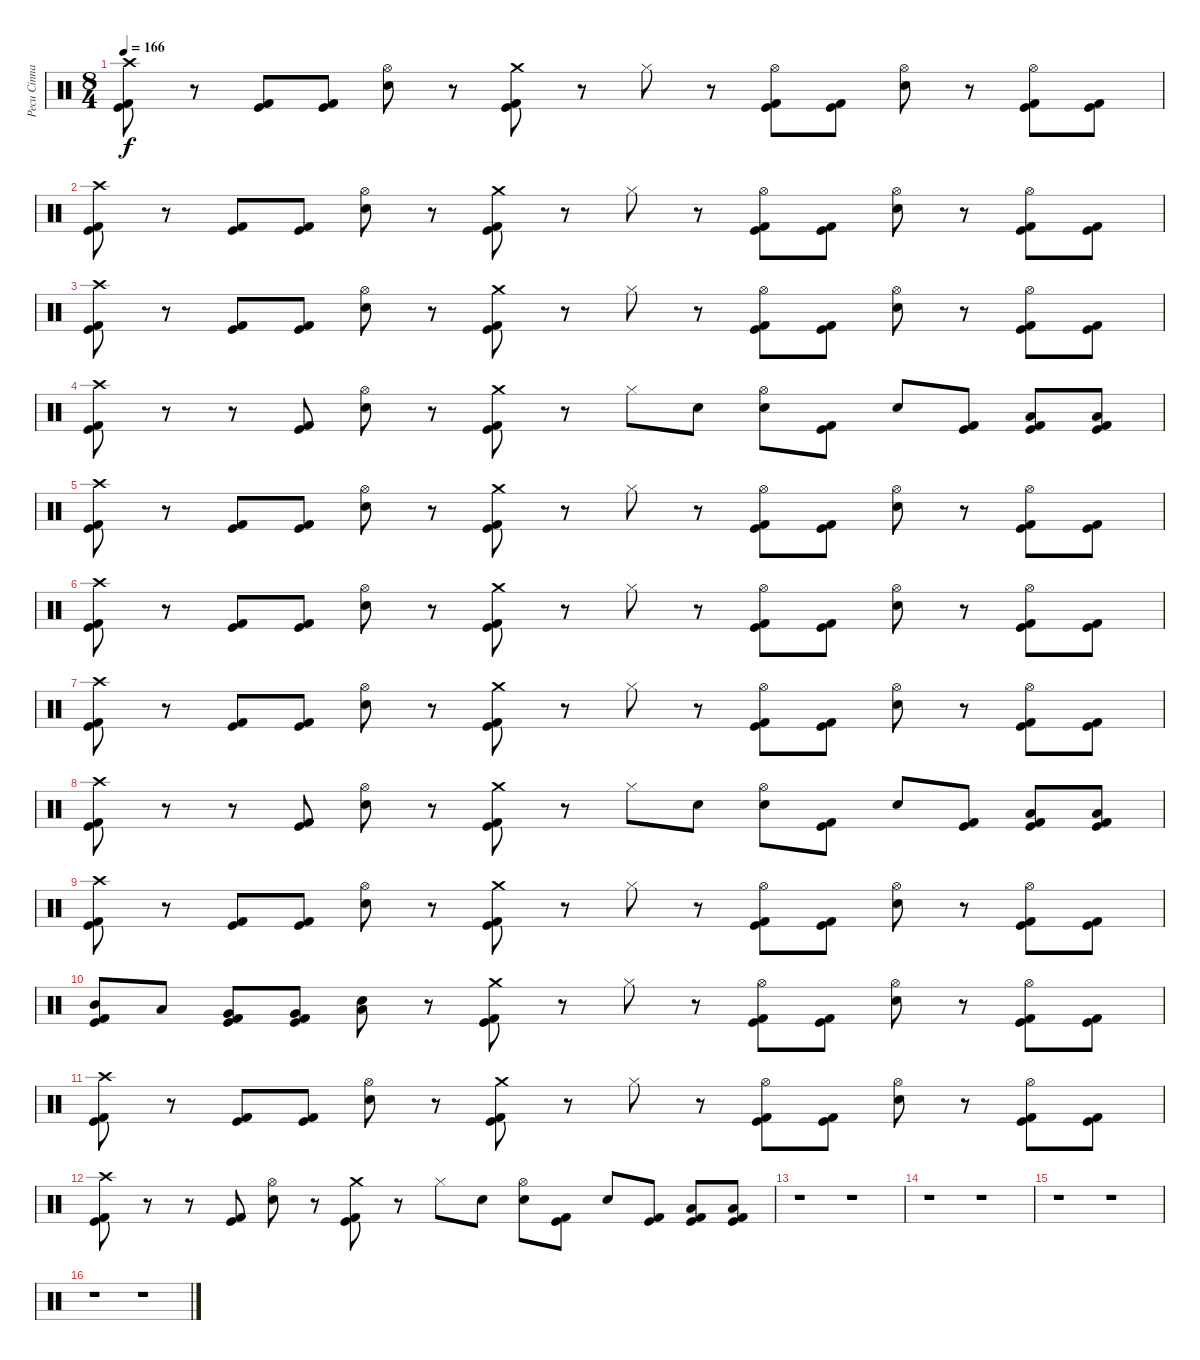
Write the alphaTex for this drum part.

\track ("Pecu Cinnari" "Pecu Cinna") {instrument percussion}
\staff {score}
\articulation defaults
\ts (8 4)
\tempo 166
\clef neutral
\ks c
("Crash high (hit)" "Kick (hit)" "Kick (hit) 2").8{dy f} r.8 ("Kick (hit)" "Kick (hit) 2").8 ("Kick (hit)" "Kick (hit) 2").8 ("Hi-Hat (open)" "Electric Snare (hit)").8 r.8 ("Crash medium (hit)" "Kick (hit)" "Kick (hit) 2").8 r.8 "Hi-Hat (closed)".8 r.8 ("Hi-Hat (open)" "Kick (hit)" "Kick (hit) 2").8 ("Kick (hit)" "Kick (hit) 2").8 ("Hi-Hat (open)" "Electric Snare (hit)").8 r.8 ("Hi-Hat (open)" "Kick (hit)" "Kick (hit) 2").8 ("Kick (hit)" "Kick (hit) 2").8 |
("Crash high (hit)" "Kick (hit)" "Kick (hit) 2").8 r.8 ("Kick (hit)" "Kick (hit) 2").8 ("Kick (hit)" "Kick (hit) 2").8 ("Hi-Hat (open)" "Electric Snare (hit)").8 r.8 ("Crash medium (hit)" "Kick (hit)" "Kick (hit) 2").8 r.8 "Hi-Hat (closed)".8 r.8 ("Hi-Hat (open)" "Kick (hit)" "Kick (hit) 2").8 ("Kick (hit)" "Kick (hit) 2").8 ("Hi-Hat (open)" "Electric Snare (hit)").8 r.8 ("Hi-Hat (open)" "Kick (hit)" "Kick (hit) 2").8 ("Kick (hit)" "Kick (hit) 2").8 |
("Crash high (hit)" "Kick (hit)" "Kick (hit) 2").8 r.8 ("Kick (hit)" "Kick (hit) 2").8 ("Kick (hit)" "Kick (hit) 2").8 ("Hi-Hat (open)" "Electric Snare (hit)").8 r.8 ("Crash medium (hit)" "Kick (hit)" "Kick (hit) 2").8 r.8 "Hi-Hat (closed)".8 r.8 ("Hi-Hat (open)" "Kick (hit)" "Kick (hit) 2").8 ("Kick (hit)" "Kick (hit) 2").8 ("Hi-Hat (open)" "Electric Snare (hit)").8 r.8 ("Hi-Hat (open)" "Kick (hit)" "Kick (hit) 2").8 ("Kick (hit)" "Kick (hit) 2").8 |
("Crash high (hit)" "Kick (hit)" "Kick (hit) 2").8 r.8 r.8 ("Kick (hit)" "Kick (hit) 2").8 ("Hi-Hat (open)" "Electric Snare (hit)").8 r.8 ("Crash medium (hit)" "Kick (hit)" "Kick (hit) 2").8 r.8 "Hi-Hat (closed)".8 "Electric Snare (hit)".8 ("Hi-Hat (open)" "Electric Snare (hit)").8 ("Kick (hit)" "Kick (hit) 2").8 "Electric Snare (hit)".8 ("Kick (hit)" "Kick (hit) 2").8 ("Low Tom (hit)" "Kick (hit)" "Kick (hit) 2").8 ("Low Tom (hit)" "Kick (hit)" "Kick (hit) 2").8 |
("Crash high (hit)" "Kick (hit)" "Kick (hit) 2").8 r.8 ("Kick (hit)" "Kick (hit) 2").8 ("Kick (hit)" "Kick (hit) 2").8 ("Hi-Hat (open)" "Electric Snare (hit)").8 r.8 ("Crash medium (hit)" "Kick (hit)" "Kick (hit) 2").8 r.8 "Hi-Hat (closed)".8 r.8 ("Hi-Hat (open)" "Kick (hit)" "Kick (hit) 2").8 ("Kick (hit)" "Kick (hit) 2").8 ("Hi-Hat (open)" "Electric Snare (hit)").8 r.8 ("Hi-Hat (open)" "Kick (hit)" "Kick (hit) 2").8 ("Kick (hit)" "Kick (hit) 2").8 |
("Crash high (hit)" "Kick (hit)" "Kick (hit) 2").8 r.8 ("Kick (hit)" "Kick (hit) 2").8 ("Kick (hit)" "Kick (hit) 2").8 ("Hi-Hat (open)" "Electric Snare (hit)").8 r.8 ("Crash medium (hit)" "Kick (hit)" "Kick (hit) 2").8 r.8 "Hi-Hat (closed)".8 r.8 ("Hi-Hat (open)" "Kick (hit)" "Kick (hit) 2").8 ("Kick (hit)" "Kick (hit) 2").8 ("Hi-Hat (open)" "Electric Snare (hit)").8 r.8 ("Hi-Hat (open)" "Kick (hit)" "Kick (hit) 2").8 ("Kick (hit)" "Kick (hit) 2").8 |
("Crash high (hit)" "Kick (hit)" "Kick (hit) 2").8 r.8 ("Kick (hit)" "Kick (hit) 2").8 ("Kick (hit)" "Kick (hit) 2").8 ("Hi-Hat (open)" "Electric Snare (hit)").8 r.8 ("Crash medium (hit)" "Kick (hit)" "Kick (hit) 2").8 r.8 "Hi-Hat (closed)".8 r.8 ("Hi-Hat (open)" "Kick (hit)" "Kick (hit) 2").8 ("Kick (hit)" "Kick (hit) 2").8 ("Hi-Hat (open)" "Electric Snare (hit)").8 r.8 ("Hi-Hat (open)" "Kick (hit)" "Kick (hit) 2").8 ("Kick (hit)" "Kick (hit) 2").8 |
("Crash high (hit)" "Kick (hit)" "Kick (hit) 2").8 r.8 r.8 ("Kick (hit)" "Kick (hit) 2").8 ("Hi-Hat (open)" "Electric Snare (hit)").8 r.8 ("Crash medium (hit)" "Kick (hit)" "Kick (hit) 2").8 r.8 "Hi-Hat (closed)".8 "Electric Snare (hit)".8 ("Hi-Hat (open)" "Electric Snare (hit)").8 ("Kick (hit)" "Kick (hit) 2").8 "Electric Snare (hit)".8 ("Kick (hit)" "Kick (hit) 2").8 ("Low Tom (hit)" "Kick (hit)" "Kick (hit) 2").8 ("Low Tom (hit)" "Kick (hit)" "Kick (hit) 2").8 |
("Crash high (hit)" "Kick (hit)" "Kick (hit) 2").8 r.8 ("Kick (hit)" "Kick (hit) 2").8 ("Kick (hit)" "Kick (hit) 2").8 ("Hi-Hat (open)" "Electric Snare (hit)").8 r.8 ("Crash medium (hit)" "Kick (hit)" "Kick (hit) 2").8 r.8 "Hi-Hat (closed)".8 r.8 ("Hi-Hat (open)" "Kick (hit)" "Kick (hit) 2").8 ("Kick (hit)" "Kick (hit) 2").8 ("Hi-Hat (open)" "Electric Snare (hit)").8 r.8 ("Hi-Hat (open)" "Kick (hit)" "Kick (hit) 2").8 ("Kick (hit)" "Kick (hit) 2").8 |
("Mid Tom (hit)" "Kick (hit)" "Kick (hit) 2").8 "Low Tom (hit)".8 ("Very Low Tom (hit)" "Kick (hit)" "Kick (hit) 2").8 ("Very Low Tom (hit)" "Kick (hit)" "Kick (hit) 2").8 ("Low Tom (hit)" "Electric Snare (hit)").8 r.8 ("Crash medium (hit)" "Kick (hit)" "Kick (hit) 2").8 r.8 "Hi-Hat (closed)".8 r.8 ("Hi-Hat (open)" "Kick (hit)" "Kick (hit) 2").8 ("Kick (hit)" "Kick (hit) 2").8 ("Hi-Hat (open)" "Electric Snare (hit)").8 r.8 ("Hi-Hat (open)" "Kick (hit)" "Kick (hit) 2").8 ("Kick (hit)" "Kick (hit) 2").8 |
("Crash high (hit)" "Kick (hit)" "Kick (hit) 2").8 r.8 ("Kick (hit)" "Kick (hit) 2").8 ("Kick (hit)" "Kick (hit) 2").8 ("Hi-Hat (open)" "Electric Snare (hit)").8 r.8 ("Crash medium (hit)" "Kick (hit)" "Kick (hit) 2").8 r.8 "Hi-Hat (closed)".8 r.8 ("Hi-Hat (open)" "Kick (hit)" "Kick (hit) 2").8 ("Kick (hit)" "Kick (hit) 2").8 ("Hi-Hat (open)" "Electric Snare (hit)").8 r.8 ("Hi-Hat (open)" "Kick (hit)" "Kick (hit) 2").8 ("Kick (hit)" "Kick (hit) 2").8 |
("Crash high (hit)" "Kick (hit)" "Kick (hit) 2").8 r.8 r.8 ("Kick (hit)" "Kick (hit) 2").8 ("Hi-Hat (open)" "Electric Snare (hit)").8 r.8 ("Crash medium (hit)" "Kick (hit)" "Kick (hit) 2").8 r.8 "Hi-Hat (closed)".8 "Electric Snare (hit)".8 ("Hi-Hat (open)" "Electric Snare (hit)").8 ("Kick (hit)" "Kick (hit) 2").8 "Electric Snare (hit)".8 ("Kick (hit)" "Kick (hit) 2").8 ("Low Tom (hit)" "Kick (hit)" "Kick (hit) 2").8 ("Low Tom (hit)" "Kick (hit)" "Kick (hit) 2").8 |
r.1 r.1 |
r.1 r.1 |
r.1 r.1 |
r.1 r.1
